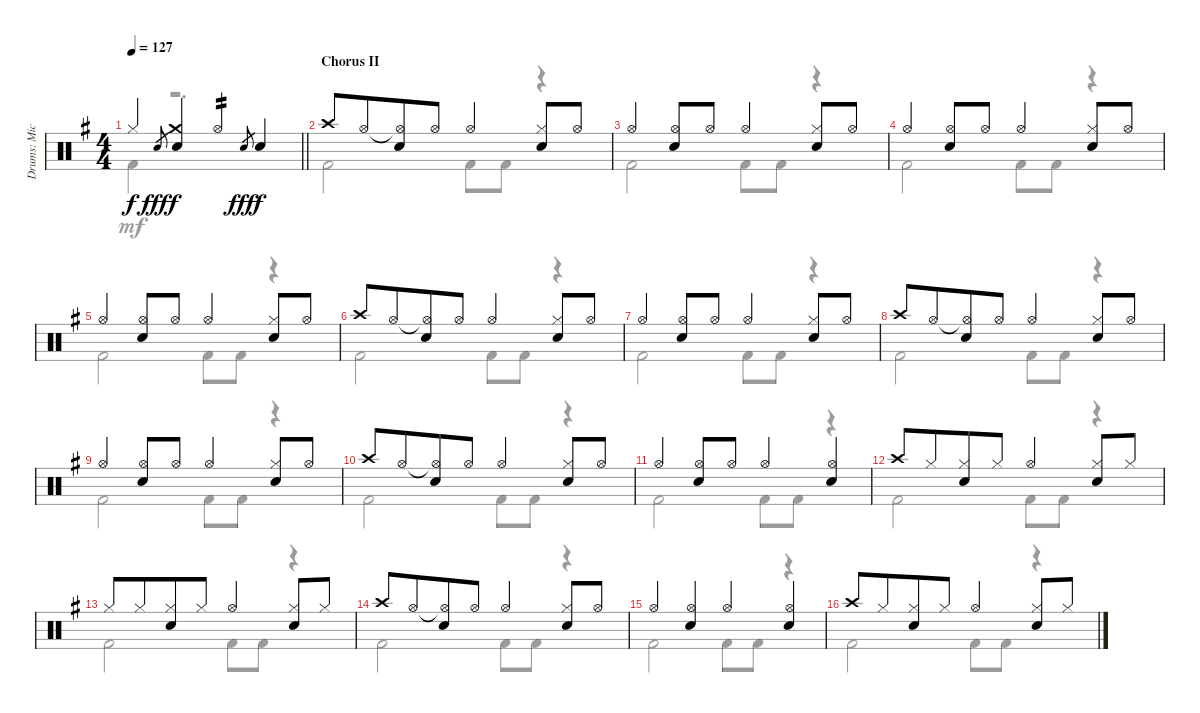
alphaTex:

\track ("Drums: Mick" "Drums: Mic") {instrument percussion}
\staff {score}
\articulation defaults
\voice
\ts (4 4)
\tempo 127
\clef neutral
\barLineRight lightlight
\ks g "Hi-Hat (closed)".4{dy f} "Electric Snare (hit)".8{gr dy fff beam merge}
("Crash medium (hit)" "Snare (hit) 2").4{dy f} "Hi-Hat (open)".4{tp 2} "Electric Snare (hit)".8{gr dy fff beam merge} "Snare (hit) 2".4{dy f} |
\section ("" "Chorus II")
"Crash high (hit)".8 "Hi-Hat (open)".8{beam merge} ("Hi-Hat (open)"{t} "Snare (hit) 2").8 "Hi-Hat (open)".8 "Hi-Hat (open)".4{beam merge} ("Hi-Hat (closed)" "Snare (hit) 2").8 "Hi-Hat (open)".8 |
"Hi-Hat (open)".4{beam merge} ("Hi-Hat (open)" "Snare (hit) 2").8 "Hi-Hat (open)".8 "Hi-Hat (open)".4{beam merge} ("Hi-Hat (closed)" "Snare (hit) 2").8 "Hi-Hat (open)".8 |
"Hi-Hat (open)".4{beam merge} ("Hi-Hat (open)" "Snare (hit) 2").8 "Hi-Hat (open)".8 "Hi-Hat (open)".4{beam merge} ("Hi-Hat (closed)" "Snare (hit) 2").8 "Hi-Hat (open)".8 |
"Hi-Hat (open)".4{beam merge} ("Hi-Hat (open)" "Snare (hit) 2").8 "Hi-Hat (open)".8 "Hi-Hat (open)".4{beam merge} ("Hi-Hat (closed)" "Snare (hit) 2").8 "Hi-Hat (open)".8 |
"Crash high (hit)".8 "Hi-Hat (open)".8{beam merge} ("Hi-Hat (open)"{t} "Snare (hit) 2").8 "Hi-Hat (open)".8 "Hi-Hat (open)".4{beam merge} ("Hi-Hat (closed)" "Snare (hit) 2").8 "Hi-Hat (open)".8 |
"Hi-Hat (open)".4{beam merge} ("Hi-Hat (open)" "Snare (hit) 2").8 "Hi-Hat (open)".8 "Hi-Hat (open)".4{beam merge} ("Hi-Hat (closed)" "Snare (hit) 2").8 "Hi-Hat (open)".8 |
"Crash high (hit)".8 "Hi-Hat (open)".8{beam merge} ("Hi-Hat (open)"{t} "Snare (hit) 2").8 "Hi-Hat (open)".8 "Hi-Hat (open)".4{beam merge} ("Hi-Hat (closed)" "Snare (hit) 2").8 "Hi-Hat (open)".8 |
"Hi-Hat (open)".4{beam merge} ("Hi-Hat (open)" "Snare (hit) 2").8 "Hi-Hat (open)".8 "Hi-Hat (open)".4{beam merge} ("Hi-Hat (closed)" "Snare (hit) 2").8 "Hi-Hat (open)".8 |
"Crash high (hit)".8 "Hi-Hat (open)".8{beam merge} ("Hi-Hat (open)"{t} "Snare (hit) 2").8 "Hi-Hat (open)".8 "Hi-Hat (open)".4{beam merge} ("Hi-Hat (closed)" "Snare (hit) 2").8 "Hi-Hat (open)".8 |
"Hi-Hat (open)".4{beam merge} ("Hi-Hat (open)" "Snare (hit) 2").8 "Hi-Hat (open)".8 "Hi-Hat (open)".4{beam merge} ("Hi-Hat (open)" "Snare (hit) 2").4 |
"Crash high (hit)".8 "Hi-Hat (closed)".8{beam merge} ("Hi-Hat (closed)" "Snare (hit) 2").8 "Hi-Hat (closed)".8 "Hi-Hat (open)".4{beam merge} ("Hi-Hat (closed)" "Snare (hit) 2").8 "Hi-Hat (closed)".8 |
"Hi-Hat (closed)".8 "Hi-Hat (closed)".8{beam merge} ("Hi-Hat (closed)" "Snare (hit) 2").8 "Hi-Hat (closed)".8 "Hi-Hat (open)".4{beam merge} ("Hi-Hat (closed)" "Snare (hit) 2").8 "Hi-Hat (closed)".8 |
"Crash high (hit)".8 "Hi-Hat (open)".8{beam merge} ("Hi-Hat (open)"{t} "Snare (hit) 2").8 "Hi-Hat (open)".8 "Hi-Hat (open)".4{beam merge} ("Hi-Hat (closed)" "Snare (hit) 2").8 "Hi-Hat (open)".8 |
"Hi-Hat (open)".4{beam merge} ("Hi-Hat (open)" "Snare (hit) 2").4 "Hi-Hat (open)".4{beam merge} ("Hi-Hat (open)" "Snare (hit) 2").4 |
"Crash high (hit)".8 "Hi-Hat (closed)".8{beam merge} ("Hi-Hat (closed)" "Snare (hit) 2").8 "Hi-Hat (closed)".8 "Hi-Hat (open)".4{beam merge} ("Hi-Hat (closed)" "Snare (hit) 2").8 "Hi-Hat (closed)".8
\voice
\clef neutral
\ottava regular
\simile none
\barLineRight lightlight
\ks g "Kick (hit) 2".4{dy mf}
r.2{d} |
"Kick (hit) 2".2 "Kick (hit) 2".8 "Kick (hit) 2".8 r.4 |
"Kick (hit) 2".2 "Kick (hit) 2".8 "Kick (hit) 2".8 r.4 |
"Kick (hit) 2".2 "Kick (hit) 2".8 "Kick (hit) 2".8 r.4 |
"Kick (hit) 2".2 "Kick (hit) 2".8 "Kick (hit) 2".8 r.4 |
"Kick (hit) 2".2 "Kick (hit) 2".8 "Kick (hit) 2".8 r.4 |
"Kick (hit) 2".2 "Kick (hit) 2".8 "Kick (hit) 2".8 r.4 |
"Kick (hit) 2".2 "Kick (hit) 2".8 "Kick (hit) 2".8 r.4 |
"Kick (hit) 2".2 "Kick (hit) 2".8 "Kick (hit) 2".8 r.4 |
"Kick (hit) 2".2 "Kick (hit) 2".8 "Kick (hit) 2".8 r.4 |
"Kick (hit) 2".2 "Kick (hit) 2".8 "Kick (hit) 2".8 r.4 |
"Kick (hit) 2".2 "Kick (hit) 2".8 "Kick (hit) 2".8 r.4 |
"Kick (hit) 2".2 "Kick (hit) 2".8 "Kick (hit) 2".8 r.4 |
"Kick (hit) 2".2 "Kick (hit) 2".8 "Kick (hit) 2".8 r.4 |
"Kick (hit) 2".2 "Kick (hit) 2".8 "Kick (hit) 2".8 r.4 |
"Kick (hit) 2".2 "Kick (hit) 2".8 "Kick (hit) 2".8 r.4
